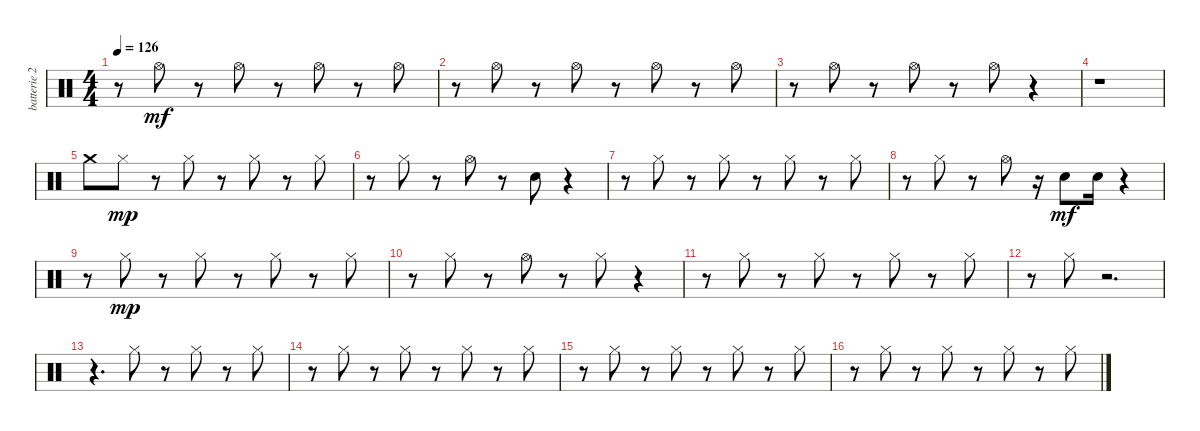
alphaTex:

\track ("batterie 2" "batterie 2") {instrument percussion}
\staff {score}
\articulation defaults
\ts (4 4)
\tempo 126
\clef neutral
\ks c
r.8{dy mf} "Hi-Hat (open)".8 r.8 "Hi-Hat (open)".8 r.8 "Hi-Hat (open)".8 r.8 "Hi-Hat (open)".8 |
r.8 "Hi-Hat (open)".8 r.8 "Hi-Hat (open)".8 r.8 "Hi-Hat (open)".8 r.8 "Hi-Hat (open)".8 |
r.8 "Hi-Hat (open)".8 r.8 "Hi-Hat (open)".8 r.8 "Hi-Hat (open)".8 r.4 |
r.1 |
"Crash medium (hit)".8 "Hi-Hat (closed)".8{dy mp} r.8 "Hi-Hat (closed)".8 r.8 "Hi-Hat (closed)".8 r.8 "Hi-Hat (closed)".8 |
r.8 "Hi-Hat (closed)".8 r.8 "Hi-Hat (open)".8 r.8 "Electric Snare (hit)".8 r.4 |
r.8 "Hi-Hat (closed)".8 r.8 "Hi-Hat (closed)".8 r.8 "Hi-Hat (closed)".8 r.8 "Hi-Hat (closed)".8 |
r.8 "Hi-Hat (closed)".8 r.8 "Hi-Hat (open)".8 r.16 "Electric Snare (hit)".8{dy mf} "Electric Snare (hit)".16 r.4 |
r.8 "Hi-Hat (closed)".8{dy mp} r.8 "Hi-Hat (closed)".8 r.8 "Hi-Hat (closed)".8 r.8 "Hi-Hat (closed)".8 |
r.8 "Hi-Hat (closed)".8 r.8 "Hi-Hat (open)".8 r.8 "Hi-Hat (closed)".8 r.4 |
r.8 "Hi-Hat (closed)".8 r.8 "Hi-Hat (closed)".8 r.8 "Hi-Hat (closed)".8 r.8 "Hi-Hat (closed)".8 |
r.8 "Hi-Hat (closed)".8 r.2{d} |
r.4{d} "Hi-Hat (closed)".8 r.8 "Hi-Hat (closed)".8 r.8 "Hi-Hat (closed)".8 |
r.8 "Hi-Hat (closed)".8 r.8 "Hi-Hat (closed)".8 r.8 "Hi-Hat (closed)".8 r.8 "Hi-Hat (closed)".8 |
r.8 "Hi-Hat (closed)".8 r.8 "Hi-Hat (closed)".8 r.8 "Hi-Hat (closed)".8 r.8 "Hi-Hat (closed)".8 |
r.8 "Hi-Hat (closed)".8 r.8 "Hi-Hat (closed)".8 r.8 "Hi-Hat (closed)".8 r.8 "Hi-Hat (closed)".8
